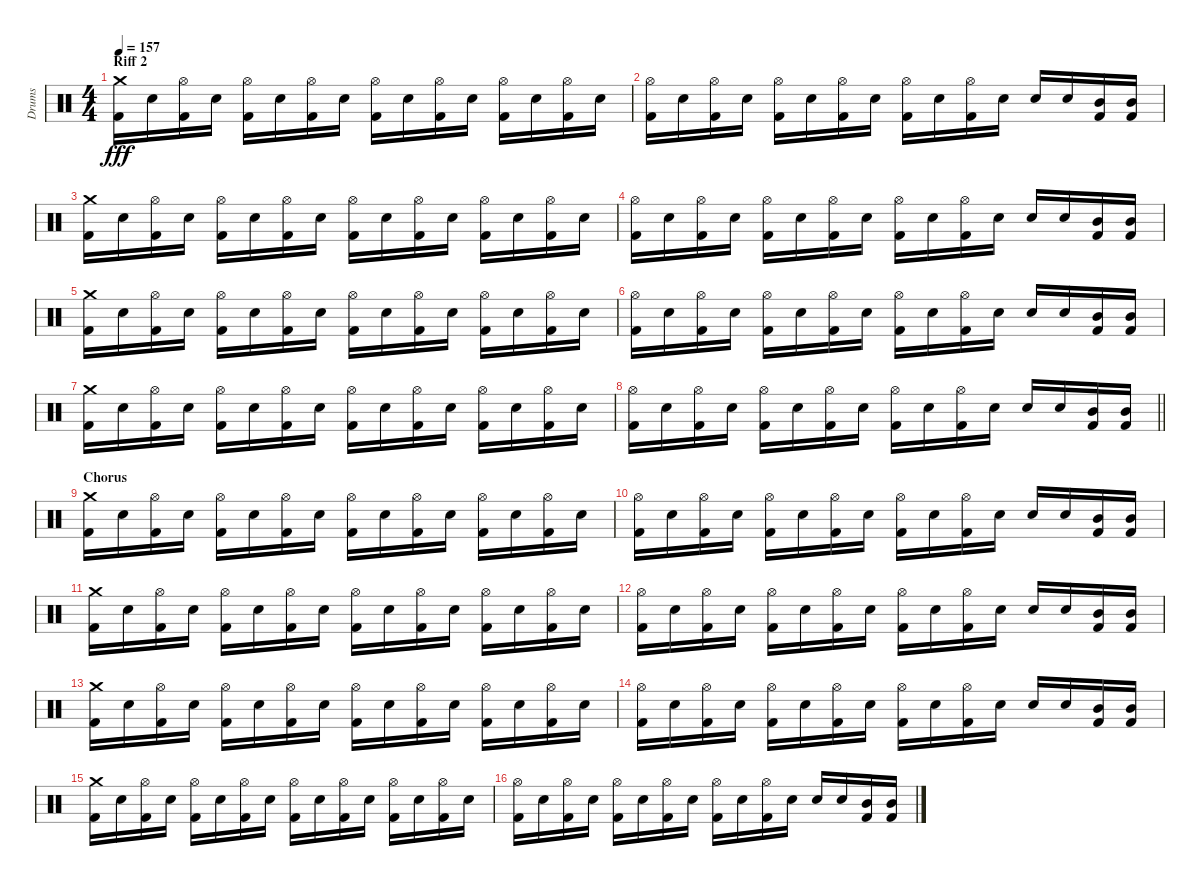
\track ("Drums" "Drums") {instrument percussion}
\staff {score}
\articulation defaults
\ts (4 4)
\section ("" "Riff 2")
\tempo 157
\clef neutral
\ks c
("Kick (hit) 2" "Crash medium (hit)").16{dy fff} "Snare (hit) 2".16 ("Kick (hit) 2" "Hi-Hat (open)").16 "Snare (hit) 2".16 ("Kick (hit) 2" "Hi-Hat (open)").16 "Snare (hit) 2".16 ("Kick (hit) 2" "Hi-Hat (open)").16 "Snare (hit) 2".16 ("Kick (hit) 2" "Hi-Hat (open)").16 "Snare (hit) 2".16 ("Kick (hit) 2" "Hi-Hat (open)").16 "Snare (hit) 2".16 ("Kick (hit) 2" "Hi-Hat (open)").16 "Snare (hit) 2".16 ("Kick (hit) 2" "Hi-Hat (open)").16 "Snare (hit) 2".16 |
("Kick (hit) 2" "Hi-Hat (open)").16 "Snare (hit) 2".16 ("Kick (hit) 2" "Hi-Hat (open)").16 "Snare (hit) 2".16 ("Kick (hit) 2" "Hi-Hat (open)").16 "Snare (hit) 2".16 ("Kick (hit) 2" "Hi-Hat (open)").16 "Snare (hit) 2".16 ("Kick (hit) 2" "Hi-Hat (open)").16 "Snare (hit) 2".16 ("Kick (hit) 2" "Hi-Hat (open)").16 "Snare (hit) 2".16 "Snare (hit) 2".16 "Snare (hit) 2".16 ("Kick (hit) 2" "Mid Tom (hit)").16 ("Kick (hit) 2" "Mid Tom (hit)").16 |
("Kick (hit) 2" "Crash medium (hit)").16 "Snare (hit) 2".16 ("Kick (hit) 2" "Hi-Hat (open)").16 "Snare (hit) 2".16 ("Kick (hit) 2" "Hi-Hat (open)").16 "Snare (hit) 2".16 ("Kick (hit) 2" "Hi-Hat (open)").16 "Snare (hit) 2".16 ("Kick (hit) 2" "Hi-Hat (open)").16 "Snare (hit) 2".16 ("Kick (hit) 2" "Hi-Hat (open)").16 "Snare (hit) 2".16 ("Kick (hit) 2" "Hi-Hat (open)").16 "Snare (hit) 2".16 ("Kick (hit) 2" "Hi-Hat (open)").16 "Snare (hit) 2".16 |
("Kick (hit) 2" "Hi-Hat (open)").16 "Snare (hit) 2".16 ("Kick (hit) 2" "Hi-Hat (open)").16 "Snare (hit) 2".16 ("Kick (hit) 2" "Hi-Hat (open)").16 "Snare (hit) 2".16 ("Kick (hit) 2" "Hi-Hat (open)").16 "Snare (hit) 2".16 ("Kick (hit) 2" "Hi-Hat (open)").16 "Snare (hit) 2".16 ("Kick (hit) 2" "Hi-Hat (open)").16 "Snare (hit) 2".16 "Snare (hit) 2".16 "Snare (hit) 2".16 ("Kick (hit) 2" "Mid Tom (hit)").16 ("Kick (hit) 2" "Mid Tom (hit)").16 |
("Kick (hit) 2" "Crash medium (hit)").16 "Snare (hit) 2".16 ("Kick (hit) 2" "Hi-Hat (open)").16 "Snare (hit) 2".16 ("Kick (hit) 2" "Hi-Hat (open)").16 "Snare (hit) 2".16 ("Kick (hit) 2" "Hi-Hat (open)").16 "Snare (hit) 2".16 ("Kick (hit) 2" "Hi-Hat (open)").16 "Snare (hit) 2".16 ("Kick (hit) 2" "Hi-Hat (open)").16 "Snare (hit) 2".16 ("Kick (hit) 2" "Hi-Hat (open)").16 "Snare (hit) 2".16 ("Kick (hit) 2" "Hi-Hat (open)").16 "Snare (hit) 2".16 |
("Kick (hit) 2" "Hi-Hat (open)").16 "Snare (hit) 2".16 ("Kick (hit) 2" "Hi-Hat (open)").16 "Snare (hit) 2".16 ("Kick (hit) 2" "Hi-Hat (open)").16 "Snare (hit) 2".16 ("Kick (hit) 2" "Hi-Hat (open)").16 "Snare (hit) 2".16 ("Kick (hit) 2" "Hi-Hat (open)").16 "Snare (hit) 2".16 ("Kick (hit) 2" "Hi-Hat (open)").16 "Snare (hit) 2".16 "Snare (hit) 2".16 "Snare (hit) 2".16 ("Kick (hit) 2" "Mid Tom (hit)").16 ("Kick (hit) 2" "Mid Tom (hit)").16 |
("Kick (hit) 2" "Crash medium (hit)").16 "Snare (hit) 2".16 ("Kick (hit) 2" "Hi-Hat (open)").16 "Snare (hit) 2".16 ("Kick (hit) 2" "Hi-Hat (open)").16 "Snare (hit) 2".16 ("Kick (hit) 2" "Hi-Hat (open)").16 "Snare (hit) 2".16 ("Kick (hit) 2" "Hi-Hat (open)").16 "Snare (hit) 2".16 ("Kick (hit) 2" "Hi-Hat (open)").16 "Snare (hit) 2".16 ("Kick (hit) 2" "Hi-Hat (open)").16 "Snare (hit) 2".16 ("Kick (hit) 2" "Hi-Hat (open)").16 "Snare (hit) 2".16 |
\barLineRight lightlight
("Kick (hit) 2" "Hi-Hat (open)").16 "Snare (hit) 2".16 ("Kick (hit) 2" "Hi-Hat (open)").16 "Snare (hit) 2".16 ("Kick (hit) 2" "Hi-Hat (open)").16 "Snare (hit) 2".16 ("Kick (hit) 2" "Hi-Hat (open)").16 "Snare (hit) 2".16 ("Kick (hit) 2" "Hi-Hat (open)").16 "Snare (hit) 2".16 ("Kick (hit) 2" "Hi-Hat (open)").16 "Snare (hit) 2".16 "Snare (hit) 2".16 "Snare (hit) 2".16 ("Kick (hit) 2" "Mid Tom (hit)").16 ("Kick (hit) 2" "Mid Tom (hit)").16 |
\section ("" "Chorus")
("Kick (hit) 2" "Crash medium (hit)").16 "Snare (hit) 2".16 ("Kick (hit) 2" "Hi-Hat (open)").16 "Snare (hit) 2".16 ("Kick (hit) 2" "Hi-Hat (open)").16 "Snare (hit) 2".16 ("Kick (hit) 2" "Hi-Hat (open)").16 "Snare (hit) 2".16 ("Kick (hit) 2" "Hi-Hat (open)").16 "Snare (hit) 2".16 ("Kick (hit) 2" "Hi-Hat (open)").16 "Snare (hit) 2".16 ("Kick (hit) 2" "Hi-Hat (open)").16 "Snare (hit) 2".16 ("Kick (hit) 2" "Hi-Hat (open)").16 "Snare (hit) 2".16 |
("Kick (hit) 2" "Hi-Hat (open)").16 "Snare (hit) 2".16 ("Kick (hit) 2" "Hi-Hat (open)").16 "Snare (hit) 2".16 ("Kick (hit) 2" "Hi-Hat (open)").16 "Snare (hit) 2".16 ("Kick (hit) 2" "Hi-Hat (open)").16 "Snare (hit) 2".16 ("Kick (hit) 2" "Hi-Hat (open)").16 "Snare (hit) 2".16 ("Kick (hit) 2" "Hi-Hat (open)").16 "Snare (hit) 2".16 "Snare (hit) 2".16 "Snare (hit) 2".16 ("Kick (hit) 2" "Mid Tom (hit)").16 ("Kick (hit) 2" "Mid Tom (hit)").16 |
("Kick (hit) 2" "Crash medium (hit)").16 "Snare (hit) 2".16 ("Kick (hit) 2" "Hi-Hat (open)").16 "Snare (hit) 2".16 ("Kick (hit) 2" "Hi-Hat (open)").16 "Snare (hit) 2".16 ("Kick (hit) 2" "Hi-Hat (open)").16 "Snare (hit) 2".16 ("Kick (hit) 2" "Hi-Hat (open)").16 "Snare (hit) 2".16 ("Kick (hit) 2" "Hi-Hat (open)").16 "Snare (hit) 2".16 ("Kick (hit) 2" "Hi-Hat (open)").16 "Snare (hit) 2".16 ("Kick (hit) 2" "Hi-Hat (open)").16 "Snare (hit) 2".16 |
("Kick (hit) 2" "Hi-Hat (open)").16 "Snare (hit) 2".16 ("Kick (hit) 2" "Hi-Hat (open)").16 "Snare (hit) 2".16 ("Kick (hit) 2" "Hi-Hat (open)").16 "Snare (hit) 2".16 ("Kick (hit) 2" "Hi-Hat (open)").16 "Snare (hit) 2".16 ("Kick (hit) 2" "Hi-Hat (open)").16 "Snare (hit) 2".16 ("Kick (hit) 2" "Hi-Hat (open)").16 "Snare (hit) 2".16 "Snare (hit) 2".16 "Snare (hit) 2".16 ("Kick (hit) 2" "Mid Tom (hit)").16 ("Kick (hit) 2" "Mid Tom (hit)").16 |
("Kick (hit) 2" "Crash medium (hit)").16 "Snare (hit) 2".16 ("Kick (hit) 2" "Hi-Hat (open)").16 "Snare (hit) 2".16 ("Kick (hit) 2" "Hi-Hat (open)").16 "Snare (hit) 2".16 ("Kick (hit) 2" "Hi-Hat (open)").16 "Snare (hit) 2".16 ("Kick (hit) 2" "Hi-Hat (open)").16 "Snare (hit) 2".16 ("Kick (hit) 2" "Hi-Hat (open)").16 "Snare (hit) 2".16 ("Kick (hit) 2" "Hi-Hat (open)").16 "Snare (hit) 2".16 ("Kick (hit) 2" "Hi-Hat (open)").16 "Snare (hit) 2".16 |
("Kick (hit) 2" "Hi-Hat (open)").16 "Snare (hit) 2".16 ("Kick (hit) 2" "Hi-Hat (open)").16 "Snare (hit) 2".16 ("Kick (hit) 2" "Hi-Hat (open)").16 "Snare (hit) 2".16 ("Kick (hit) 2" "Hi-Hat (open)").16 "Snare (hit) 2".16 ("Kick (hit) 2" "Hi-Hat (open)").16 "Snare (hit) 2".16 ("Kick (hit) 2" "Hi-Hat (open)").16 "Snare (hit) 2".16 "Snare (hit) 2".16 "Snare (hit) 2".16 ("Kick (hit) 2" "Mid Tom (hit)").16 ("Kick (hit) 2" "Mid Tom (hit)").16 |
("Kick (hit) 2" "Crash medium (hit)").16 "Snare (hit) 2".16 ("Kick (hit) 2" "Hi-Hat (open)").16 "Snare (hit) 2".16 ("Kick (hit) 2" "Hi-Hat (open)").16 "Snare (hit) 2".16 ("Kick (hit) 2" "Hi-Hat (open)").16 "Snare (hit) 2".16 ("Kick (hit) 2" "Hi-Hat (open)").16 "Snare (hit) 2".16 ("Kick (hit) 2" "Hi-Hat (open)").16 "Snare (hit) 2".16 ("Kick (hit) 2" "Hi-Hat (open)").16 "Snare (hit) 2".16 ("Kick (hit) 2" "Hi-Hat (open)").16 "Snare (hit) 2".16 |
("Kick (hit) 2" "Hi-Hat (open)").16 "Snare (hit) 2".16 ("Kick (hit) 2" "Hi-Hat (open)").16 "Snare (hit) 2".16 ("Kick (hit) 2" "Hi-Hat (open)").16 "Snare (hit) 2".16 ("Kick (hit) 2" "Hi-Hat (open)").16 "Snare (hit) 2".16 ("Kick (hit) 2" "Hi-Hat (open)").16 "Snare (hit) 2".16 ("Kick (hit) 2" "Hi-Hat (open)").16 "Snare (hit) 2".16 "Snare (hit) 2".16 "Snare (hit) 2".16 ("Kick (hit) 2" "Mid Tom (hit)").16 ("Kick (hit) 2" "Mid Tom (hit)").16
